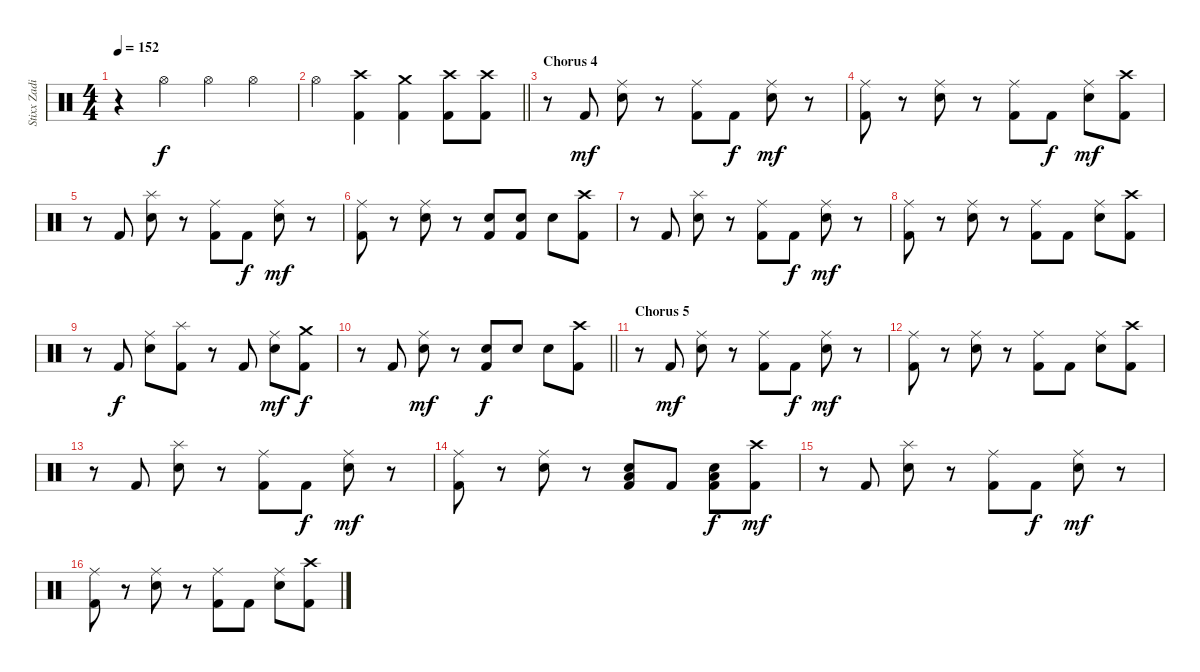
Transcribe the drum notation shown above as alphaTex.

\track ("Stixx Zadinia (Drums)" "Stixx Zadi") {instrument percussion}
\staff {score}
\articulation defaults
\ts (4 4)
\tempo 152
\clef neutral
\ks c
r.4{dy f} "Hi-Hat (open)".4 "Hi-Hat (open)".4 "Hi-Hat (open)".4 |
\barLineRight lightlight "Hi-Hat (open)".4
("Crash high (hit)" "Kick (hit) 2").4 ("Crash medium (hit)" "Kick (hit) 2").4 ("Crash high (hit)" "Kick (hit) 2").8 ("Crash high (hit)" "Kick (hit) 2").8 |
\section ("" "Chorus 4")
r.8 "Kick (hit) 2".8{dy mf} ("Ride (middle)" "Snare (hit) 2").8 r.8 ("Ride (middle)" "Kick (hit) 2").8 "Kick (hit) 2".8{dy f} ("Ride (middle)" "Snare (hit) 2").8{dy mf} r.8 |
("Ride (middle)" "Kick (hit) 2").8 r.8 ("Ride (middle)" "Snare (hit) 2").8 r.8 ("Ride (middle)" "Kick (hit) 2").8 "Kick (hit) 2".8{dy f} ("Ride (middle)" "Snare (hit) 2").8{dy mf} ("Crash high (hit)" "Kick (hit) 2").8 |
r.8 "Kick (hit) 2".8 ("Splash (hit)" "Snare (hit) 2").8 r.8 ("Ride (middle)" "Kick (hit) 2").8 "Kick (hit) 2".8{dy f} ("Ride (middle)" "Snare (hit) 2").8{dy mf} r.8 |
("Ride (middle)" "Kick (hit) 2").8 r.8 ("Ride (middle)" "Snare (hit) 2").8 r.8 ("Snare (hit) 2" "Kick (hit) 2").8 ("Snare (hit) 2" "Kick (hit) 2").8 "Snare (hit) 2".8 ("Crash high (hit)" "Kick (hit) 2").8 |
r.8 "Kick (hit) 2".8 ("Splash (hit)" "Snare (hit) 2").8 r.8 ("Ride (middle)" "Kick (hit) 2").8 "Kick (hit) 2".8{dy f} ("Ride (middle)" "Snare (hit) 2").8{dy mf} r.8 |
("Ride (middle)" "Kick (hit) 2").8 r.8 ("Ride (middle)" "Snare (hit) 2").8 r.8 ("Ride (middle)" "Kick (hit) 2").8 "Kick (hit) 2".8 ("Ride (middle)" "Snare (hit) 2").8 ("Crash high (hit)" "Kick (hit) 2").8 |
r.8 "Kick (hit) 2".8{dy f} ("Ride (middle)" "Snare (hit) 2").8 ("Splash (hit)" "Kick (hit) 2").8 r.8 "Kick (hit) 2".8 ("Ride (middle)" "Snare (hit) 2").8{dy mf} ("Crash medium (hit)" "Kick (hit) 2").8{dy f} |
\barLineRight lightlight
r.8 "Kick (hit) 2".8 ("Ride (middle)" "Snare (hit) 2").8{dy mf} r.8 ("Snare (hit) 2" "Kick (hit) 2").8{dy f} "Snare (hit) 2".8 "Snare (hit) 2".8 ("Crash high (hit)" "Kick (hit) 2").8 |
\section ("" "Chorus 5")
r.8 "Kick (hit) 2".8{dy mf} ("Ride (middle)" "Snare (hit) 2").8 r.8 ("Ride (middle)" "Kick (hit) 2").8 "Kick (hit) 2".8{dy f} ("Ride (middle)" "Snare (hit) 2").8{dy mf} r.8 |
("Ride (middle)" "Kick (hit) 2").8 r.8 ("Ride (middle)" "Snare (hit) 2").8 r.8 ("Ride (middle)" "Kick (hit) 2").8 "Kick (hit) 2".8 ("Ride (middle)" "Snare (hit) 2").8 ("Crash high (hit)" "Kick (hit) 2").8 |
r.8 "Kick (hit) 2".8 ("Splash (hit)" "Snare (hit) 2").8 r.8 ("Ride (middle)" "Kick (hit) 2").8 "Kick (hit) 2".8{dy f} ("Ride (middle)" "Snare (hit) 2").8{dy mf} r.8 |
("Ride (middle)" "Kick (hit) 2").8 r.8 ("Ride (middle)" "Snare (hit) 2").8 r.8 ("Low Floor Tom (hit)" "Snare (hit) 2" "Kick (hit) 2").8 "Kick (hit) 2".8 ("Low Floor Tom (hit)" "Snare (hit) 2" "Kick (hit) 2").8{dy f} ("Crash high (hit)" "Kick (hit) 2").8{dy mf} |
r.8 "Kick (hit) 2".8 ("Splash (hit)" "Snare (hit) 2").8 r.8 ("Ride (middle)" "Kick (hit) 2").8 "Kick (hit) 2".8{dy f} ("Ride (middle)" "Snare (hit) 2").8{dy mf} r.8 |
("Ride (middle)" "Kick (hit) 2").8 r.8 ("Ride (middle)" "Snare (hit) 2").8 r.8 ("Ride (middle)" "Kick (hit) 2").8 "Kick (hit) 2".8 ("Ride (middle)" "Snare (hit) 2").8 ("Crash high (hit)" "Kick (hit) 2").8
